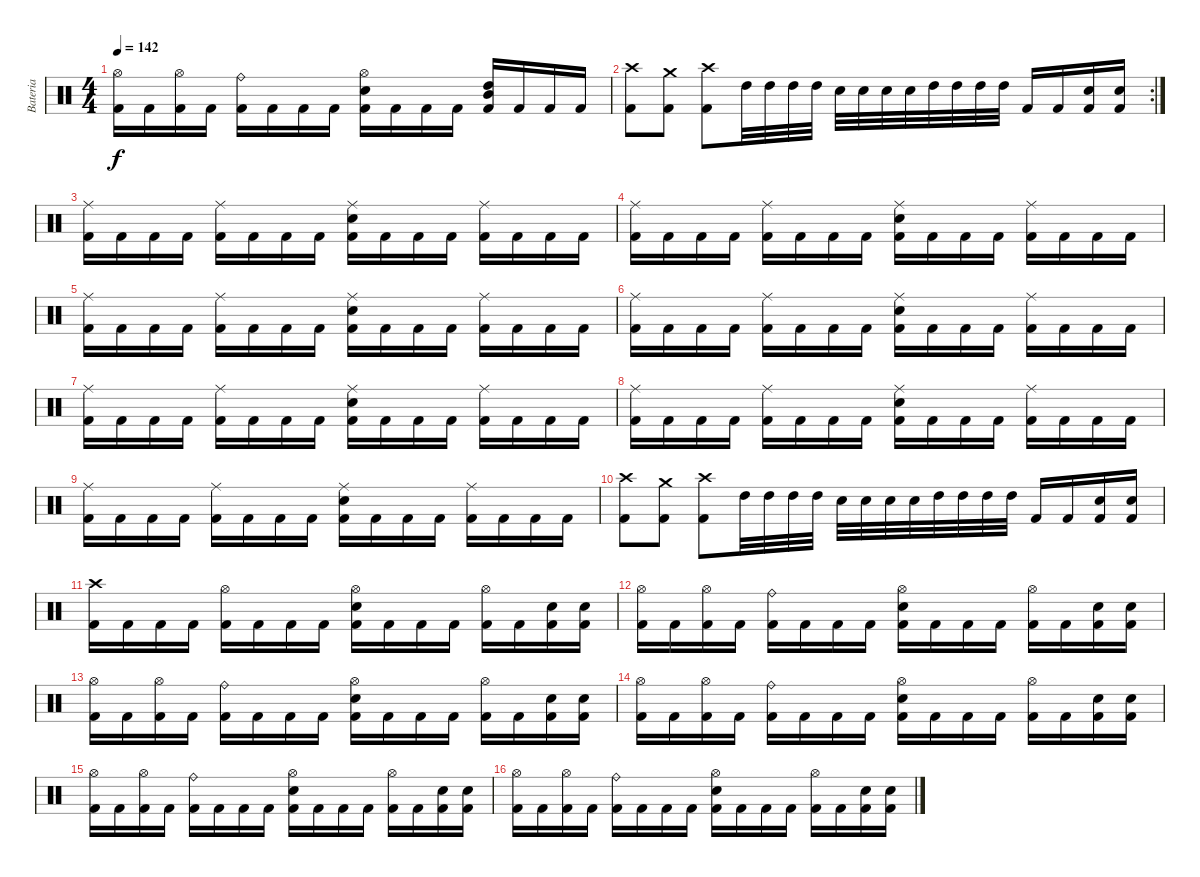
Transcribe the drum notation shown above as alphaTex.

\track ("Bateria" "Bateria") {instrument percussion}
\staff {score}
\articulation defaults
\ts (4 4)
\tempo 142
\clef neutral
\ks c
("Hi-Hat (open)" "Kick (hit) 2").16{dy f} "Kick (hit) 2".16 ("Hi-Hat (open)" "Kick (hit) 2").16 "Kick (hit) 2".16 ("Ride (bell)" "Kick (hit) 2").16 "Kick (hit) 2".16 "Kick (hit) 2".16 "Kick (hit) 2".16 ("Hi-Hat (open)" "Electric Snare (hit)" "Kick (hit) 2").16 "Kick (hit) 2".16 "Kick (hit) 2".16 "Kick (hit) 2".16 ("High Tom (hit)" "Mid Tom (hit)" "Kick (hit) 2").16 "Kick (hit) 2".16 "Kick (hit) 2".16 "Kick (hit) 2".16 |
\rc 2
("Crash high (hit)" "Kick (hit) 2").8 ("Crash medium (hit)" "Kick (hit) 2").8 ("Crash high (hit)" "Kick (hit) 2").8 "High Tom (hit)".32 "High Tom (hit)".32 "High Tom (hit)".32 "High Tom (hit)".32 "Electric Snare (hit)".32 "Electric Snare (hit)".32 "Electric Snare (hit)".32 "Electric Snare (hit)".32 "High Tom (hit)".32 "High Tom (hit)".32 "High Tom (hit)".32 "High Tom (hit)".32 "Kick (hit) 2".16 "Kick (hit) 2".16 ("Electric Snare (hit)" "Kick (hit) 2").16 ("Electric Snare (hit)" "Kick (hit) 2").16 |
("Ride (middle)" "Kick (hit) 2").16 "Kick (hit) 2".16 "Kick (hit) 2".16 "Kick (hit) 2".16 ("Ride (middle)" "Kick (hit) 2").16 "Kick (hit) 2".16 "Kick (hit) 2".16 "Kick (hit) 2".16 ("Ride (middle)" "Electric Snare (hit)" "Kick (hit) 2").16 "Kick (hit) 2".16 "Kick (hit) 2".16 "Kick (hit) 2".16 ("Ride (middle)" "Kick (hit) 2").16 "Kick (hit) 2".16 "Kick (hit) 2".16 "Kick (hit) 2".16 |
("Ride (middle)" "Kick (hit) 2").16 "Kick (hit) 2".16 "Kick (hit) 2".16 "Kick (hit) 2".16 ("Ride (middle)" "Kick (hit) 2").16 "Kick (hit) 2".16 "Kick (hit) 2".16 "Kick (hit) 2".16 ("Ride (middle)" "Electric Snare (hit)" "Kick (hit) 2").16 "Kick (hit) 2".16 "Kick (hit) 2".16 "Kick (hit) 2".16 ("Ride (middle)" "Kick (hit) 2").16 "Kick (hit) 2".16 "Kick (hit) 2".16 "Kick (hit) 2".16 |
("Ride (middle)" "Kick (hit) 2").16 "Kick (hit) 2".16 "Kick (hit) 2".16 "Kick (hit) 2".16 ("Ride (middle)" "Kick (hit) 2").16 "Kick (hit) 2".16 "Kick (hit) 2".16 "Kick (hit) 2".16 ("Ride (middle)" "Electric Snare (hit)" "Kick (hit) 2").16 "Kick (hit) 2".16 "Kick (hit) 2".16 "Kick (hit) 2".16 ("Ride (middle)" "Kick (hit) 2").16 "Kick (hit) 2".16 "Kick (hit) 2".16 "Kick (hit) 2".16 |
("Ride (middle)" "Kick (hit) 2").16 "Kick (hit) 2".16 "Kick (hit) 2".16 "Kick (hit) 2".16 ("Ride (middle)" "Kick (hit) 2").16 "Kick (hit) 2".16 "Kick (hit) 2".16 "Kick (hit) 2".16 ("Ride (middle)" "Electric Snare (hit)" "Kick (hit) 2").16 "Kick (hit) 2".16 "Kick (hit) 2".16 "Kick (hit) 2".16 ("Ride (middle)" "Kick (hit) 2").16 "Kick (hit) 2".16 "Kick (hit) 2".16 "Kick (hit) 2".16 |
("Ride (middle)" "Kick (hit) 2").16 "Kick (hit) 2".16 "Kick (hit) 2".16 "Kick (hit) 2".16 ("Ride (middle)" "Kick (hit) 2").16 "Kick (hit) 2".16 "Kick (hit) 2".16 "Kick (hit) 2".16 ("Ride (middle)" "Electric Snare (hit)" "Kick (hit) 2").16 "Kick (hit) 2".16 "Kick (hit) 2".16 "Kick (hit) 2".16 ("Ride (middle)" "Kick (hit) 2").16 "Kick (hit) 2".16 "Kick (hit) 2".16 "Kick (hit) 2".16 |
("Ride (middle)" "Kick (hit) 2").16 "Kick (hit) 2".16 "Kick (hit) 2".16 "Kick (hit) 2".16 ("Ride (middle)" "Kick (hit) 2").16 "Kick (hit) 2".16 "Kick (hit) 2".16 "Kick (hit) 2".16 ("Ride (middle)" "Electric Snare (hit)" "Kick (hit) 2").16 "Kick (hit) 2".16 "Kick (hit) 2".16 "Kick (hit) 2".16 ("Ride (middle)" "Kick (hit) 2").16 "Kick (hit) 2".16 "Kick (hit) 2".16 "Kick (hit) 2".16 |
("Ride (middle)" "Kick (hit) 2").16 "Kick (hit) 2".16 "Kick (hit) 2".16 "Kick (hit) 2".16 ("Ride (middle)" "Kick (hit) 2").16 "Kick (hit) 2".16 "Kick (hit) 2".16 "Kick (hit) 2".16 ("Ride (middle)" "Electric Snare (hit)" "Kick (hit) 2").16 "Kick (hit) 2".16 "Kick (hit) 2".16 "Kick (hit) 2".16 ("Ride (middle)" "Kick (hit) 2").16 "Kick (hit) 2".16 "Kick (hit) 2".16 "Kick (hit) 2".16 |
("Crash high (hit)" "Kick (hit) 2").8 ("Crash medium (hit)" "Kick (hit) 2").8 ("Crash high (hit)" "Kick (hit) 2").8 "High Tom (hit)".32 "High Tom (hit)".32 "High Tom (hit)".32 "High Tom (hit)".32 "Electric Snare (hit)".32 "Electric Snare (hit)".32 "Electric Snare (hit)".32 "Electric Snare (hit)".32 "High Tom (hit)".32 "High Tom (hit)".32 "High Tom (hit)".32 "High Tom (hit)".32 "Kick (hit) 2".16 "Kick (hit) 2".16 ("Electric Snare (hit)" "Kick (hit) 2").16 ("Electric Snare (hit)" "Kick (hit) 2").16 |
("Crash high (hit)" "Kick (hit) 2").16 "Kick (hit) 2".16 "Kick (hit) 2".16 "Kick (hit) 2".16 ("Hi-Hat (open)" "Kick (hit) 2").16 "Kick (hit) 2".16 "Kick (hit) 2".16 "Kick (hit) 2".16 ("Hi-Hat (open)" "Electric Snare (hit)" "Kick (hit) 2").16 "Kick (hit) 2".16 "Kick (hit) 2".16 "Kick (hit) 2".16 ("Hi-Hat (open)" "Kick (hit) 2").16 "Kick (hit) 2".16 ("Electric Snare (hit)" "Kick (hit) 2").16 ("Electric Snare (hit)" "Kick (hit) 2").16 |
("Hi-Hat (open)" "Kick (hit) 2").16 "Kick (hit) 2".16 ("Hi-Hat (open)" "Kick (hit) 2").16 "Kick (hit) 2".16 ("Ride (bell)" "Kick (hit) 2").16 "Kick (hit) 2".16 "Kick (hit) 2".16 "Kick (hit) 2".16 ("Hi-Hat (open)" "Electric Snare (hit)" "Kick (hit) 2").16 "Kick (hit) 2".16 "Kick (hit) 2".16 "Kick (hit) 2".16 ("Hi-Hat (open)" "Kick (hit) 2").16 "Kick (hit) 2".16 ("Electric Snare (hit)" "Kick (hit) 2").16 ("Electric Snare (hit)" "Kick (hit) 2").16 |
("Hi-Hat (open)" "Kick (hit) 2").16 "Kick (hit) 2".16 ("Hi-Hat (open)" "Kick (hit) 2").16 "Kick (hit) 2".16 ("Ride (bell)" "Kick (hit) 2").16 "Kick (hit) 2".16 "Kick (hit) 2".16 "Kick (hit) 2".16 ("Hi-Hat (open)" "Electric Snare (hit)" "Kick (hit) 2").16 "Kick (hit) 2".16 "Kick (hit) 2".16 "Kick (hit) 2".16 ("Hi-Hat (open)" "Kick (hit) 2").16 "Kick (hit) 2".16 ("Electric Snare (hit)" "Kick (hit) 2").16 ("Electric Snare (hit)" "Kick (hit) 2").16 |
("Hi-Hat (open)" "Kick (hit) 2").16 "Kick (hit) 2".16 ("Hi-Hat (open)" "Kick (hit) 2").16 "Kick (hit) 2".16 ("Ride (bell)" "Kick (hit) 2").16 "Kick (hit) 2".16 "Kick (hit) 2".16 "Kick (hit) 2".16 ("Hi-Hat (open)" "Electric Snare (hit)" "Kick (hit) 2").16 "Kick (hit) 2".16 "Kick (hit) 2".16 "Kick (hit) 2".16 ("Hi-Hat (open)" "Kick (hit) 2").16 "Kick (hit) 2".16 ("Electric Snare (hit)" "Kick (hit) 2").16 ("Electric Snare (hit)" "Kick (hit) 2").16 |
("Hi-Hat (open)" "Kick (hit) 2").16 "Kick (hit) 2".16 ("Hi-Hat (open)" "Kick (hit) 2").16 "Kick (hit) 2".16 ("Ride (bell)" "Kick (hit) 2").16 "Kick (hit) 2".16 "Kick (hit) 2".16 "Kick (hit) 2".16 ("Hi-Hat (open)" "Electric Snare (hit)" "Kick (hit) 2").16 "Kick (hit) 2".16 "Kick (hit) 2".16 "Kick (hit) 2".16 ("Hi-Hat (open)" "Kick (hit) 2").16 "Kick (hit) 2".16 ("Electric Snare (hit)" "Kick (hit) 2").16 ("Electric Snare (hit)" "Kick (hit) 2").16 |
("Hi-Hat (open)" "Kick (hit) 2").16 "Kick (hit) 2".16 ("Hi-Hat (open)" "Kick (hit) 2").16 "Kick (hit) 2".16 ("Ride (bell)" "Kick (hit) 2").16 "Kick (hit) 2".16 "Kick (hit) 2".16 "Kick (hit) 2".16 ("Hi-Hat (open)" "Electric Snare (hit)" "Kick (hit) 2").16 "Kick (hit) 2".16 "Kick (hit) 2".16 "Kick (hit) 2".16 ("Hi-Hat (open)" "Kick (hit) 2").16 "Kick (hit) 2".16 ("Electric Snare (hit)" "Kick (hit) 2").16 ("Electric Snare (hit)" "Kick (hit) 2").16
